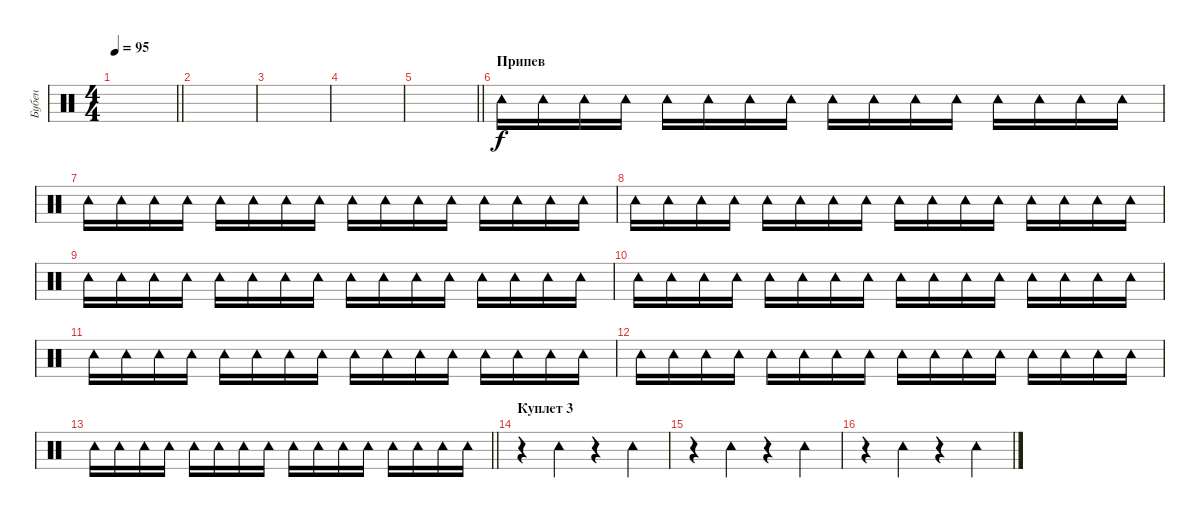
\track ("Бубен" "Бубен") {instrument percussion}
\staff {score}
\articulation defaults
\ts (4 4)
\tempo 95
\clef neutral
\barLineRight lightlight
\ks c
|
|
|
|
\barLineRight lightlight
|
\section ("" "Припев")
"Tambourine (hit)".16 "Tambourine (hit)".16 "Tambourine (hit)".16 "Tambourine (hit)".16 "Tambourine (hit)".16 "Tambourine (hit)".16 "Tambourine (hit)".16 "Tambourine (hit)".16 "Tambourine (hit)".16 "Tambourine (hit)".16 "Tambourine (hit)".16 "Tambourine (hit)".16 "Tambourine (hit)".16 "Tambourine (hit)".16 "Tambourine (hit)".16 "Tambourine (hit)".16 |
"Tambourine (hit)".16 "Tambourine (hit)".16 "Tambourine (hit)".16 "Tambourine (hit)".16 "Tambourine (hit)".16 "Tambourine (hit)".16 "Tambourine (hit)".16 "Tambourine (hit)".16 "Tambourine (hit)".16 "Tambourine (hit)".16 "Tambourine (hit)".16 "Tambourine (hit)".16 "Tambourine (hit)".16 "Tambourine (hit)".16 "Tambourine (hit)".16 "Tambourine (hit)".16 |
"Tambourine (hit)".16 "Tambourine (hit)".16 "Tambourine (hit)".16 "Tambourine (hit)".16 "Tambourine (hit)".16 "Tambourine (hit)".16 "Tambourine (hit)".16 "Tambourine (hit)".16 "Tambourine (hit)".16 "Tambourine (hit)".16 "Tambourine (hit)".16 "Tambourine (hit)".16 "Tambourine (hit)".16 "Tambourine (hit)".16 "Tambourine (hit)".16 "Tambourine (hit)".16 |
"Tambourine (hit)".16 "Tambourine (hit)".16 "Tambourine (hit)".16 "Tambourine (hit)".16 "Tambourine (hit)".16 "Tambourine (hit)".16 "Tambourine (hit)".16 "Tambourine (hit)".16 "Tambourine (hit)".16 "Tambourine (hit)".16 "Tambourine (hit)".16 "Tambourine (hit)".16 "Tambourine (hit)".16 "Tambourine (hit)".16 "Tambourine (hit)".16 "Tambourine (hit)".16 |
"Tambourine (hit)".16 "Tambourine (hit)".16 "Tambourine (hit)".16 "Tambourine (hit)".16 "Tambourine (hit)".16 "Tambourine (hit)".16 "Tambourine (hit)".16 "Tambourine (hit)".16 "Tambourine (hit)".16 "Tambourine (hit)".16 "Tambourine (hit)".16 "Tambourine (hit)".16 "Tambourine (hit)".16 "Tambourine (hit)".16 "Tambourine (hit)".16 "Tambourine (hit)".16 |
"Tambourine (hit)".16 "Tambourine (hit)".16 "Tambourine (hit)".16 "Tambourine (hit)".16 "Tambourine (hit)".16 "Tambourine (hit)".16 "Tambourine (hit)".16 "Tambourine (hit)".16 "Tambourine (hit)".16 "Tambourine (hit)".16 "Tambourine (hit)".16 "Tambourine (hit)".16 "Tambourine (hit)".16 "Tambourine (hit)".16 "Tambourine (hit)".16 "Tambourine (hit)".16 |
"Tambourine (hit)".16 "Tambourine (hit)".16 "Tambourine (hit)".16 "Tambourine (hit)".16 "Tambourine (hit)".16 "Tambourine (hit)".16 "Tambourine (hit)".16 "Tambourine (hit)".16 "Tambourine (hit)".16 "Tambourine (hit)".16 "Tambourine (hit)".16 "Tambourine (hit)".16 "Tambourine (hit)".16 "Tambourine (hit)".16 "Tambourine (hit)".16 "Tambourine (hit)".16 |
\barLineRight lightlight "Tambourine (hit)".16 "Tambourine (hit)".16 "Tambourine (hit)".16 "Tambourine (hit)".16 "Tambourine (hit)".16 "Tambourine (hit)".16 "Tambourine (hit)".16 "Tambourine (hit)".16 "Tambourine (hit)".16 "Tambourine (hit)".16 "Tambourine (hit)".16 "Tambourine (hit)".16 "Tambourine (hit)".16 "Tambourine (hit)".16 "Tambourine (hit)".16 "Tambourine (hit)".16
|
\section ("" "Куплет 3")
r.4{volume 15} "Tambourine (hit)".4 r.4 "Tambourine (hit)".4 |
r.4 "Tambourine (hit)".4 r.4 "Tambourine (hit)".4 |
r.4 "Tambourine (hit)".4 r.4 "Tambourine (hit)".4
